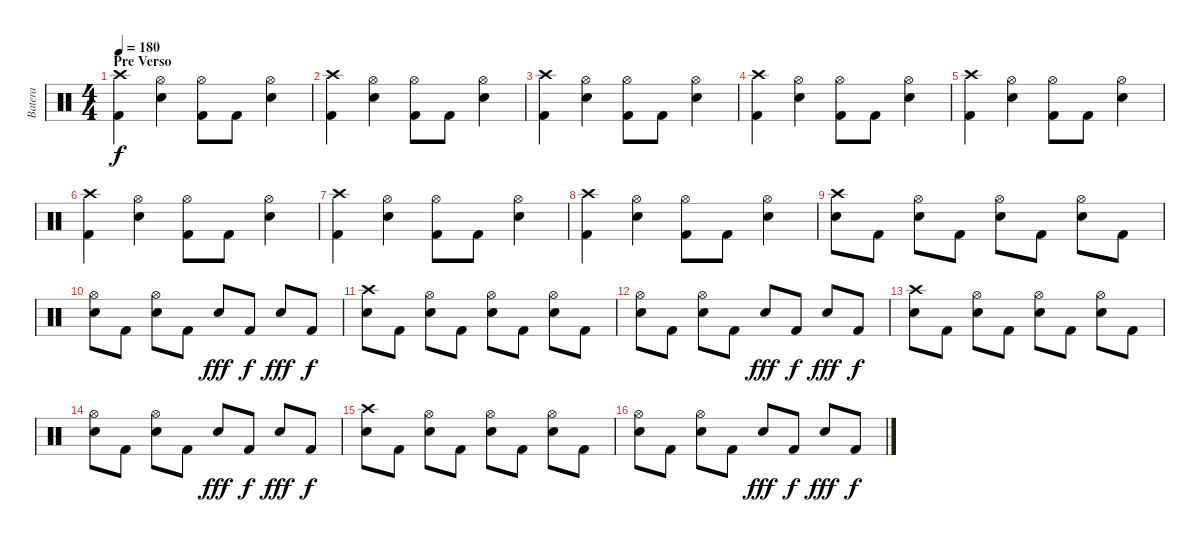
\track ("Batera" "Batera") {instrument percussion}
\staff {score}
\articulation defaults
\ts (4 4)
\section ("" "Pre Verso")
\tempo 180
\clef neutral
\ks c
("Crash high (hit)" "Kick (hit) 2").4{dy f} ("Hi-Hat (open)" "Snare (hit) 2").4 ("Hi-Hat (open)" "Kick (hit) 2").8 "Kick (hit) 2".8 ("Hi-Hat (open)" "Snare (hit) 2").4 |
("Crash high (hit)" "Kick (hit) 2").4 ("Hi-Hat (open)" "Snare (hit) 2").4 ("Hi-Hat (open)" "Kick (hit) 2").8 "Kick (hit) 2".8 ("Hi-Hat (open)" "Snare (hit) 2").4 |
("Crash high (hit)" "Kick (hit) 2").4 ("Hi-Hat (open)" "Snare (hit) 2").4 ("Hi-Hat (open)" "Kick (hit) 2").8 "Kick (hit) 2".8 ("Hi-Hat (open)" "Snare (hit) 2").4 |
("Crash high (hit)" "Kick (hit) 2").4 ("Hi-Hat (open)" "Snare (hit) 2").4 ("Hi-Hat (open)" "Kick (hit) 2").8 "Kick (hit) 2".8 ("Hi-Hat (open)" "Snare (hit) 2").4 |
("Crash high (hit)" "Kick (hit) 2").4 ("Hi-Hat (open)" "Snare (hit) 2").4 ("Hi-Hat (open)" "Kick (hit) 2").8 "Kick (hit) 2".8 ("Hi-Hat (open)" "Snare (hit) 2").4 |
("Crash high (hit)" "Kick (hit) 2").4 ("Hi-Hat (open)" "Snare (hit) 2").4 ("Hi-Hat (open)" "Kick (hit) 2").8 "Kick (hit) 2".8 ("Hi-Hat (open)" "Snare (hit) 2").4 |
("Crash high (hit)" "Kick (hit) 2").4 ("Hi-Hat (open)" "Snare (hit) 2").4 ("Hi-Hat (open)" "Kick (hit) 2").8 "Kick (hit) 2".8 ("Hi-Hat (open)" "Snare (hit) 2").4 |
("Crash high (hit)" "Kick (hit) 2").4 ("Hi-Hat (open)" "Snare (hit) 2").4 ("Hi-Hat (open)" "Kick (hit) 2").8 "Kick (hit) 2".8 ("Hi-Hat (open)" "Snare (hit) 2").4 |
("Crash high (hit)" "Snare (hit) 2").8 "Kick (hit) 2".8 ("Hi-Hat (open)" "Snare (hit) 2").8 "Kick (hit) 2".8 ("Hi-Hat (open)" "Snare (hit) 2").8 "Kick (hit) 2".8 ("Hi-Hat (open)" "Snare (hit) 2").8 "Kick (hit) 2".8 |
("Hi-Hat (open)" "Snare (hit) 2").8 "Kick (hit) 2".8 ("Hi-Hat (open)" "Snare (hit) 2").8 "Kick (hit) 2".8 "Snare (hit) 2".8{dy fff} "Kick (hit) 2".8{dy f} "Snare (hit) 2".8{dy fff} "Kick (hit) 2".8{dy f} |
("Crash high (hit)" "Snare (hit) 2").8 "Kick (hit) 2".8 ("Hi-Hat (open)" "Snare (hit) 2").8 "Kick (hit) 2".8 ("Hi-Hat (open)" "Snare (hit) 2").8 "Kick (hit) 2".8 ("Hi-Hat (open)" "Snare (hit) 2").8 "Kick (hit) 2".8 |
("Hi-Hat (open)" "Snare (hit) 2").8 "Kick (hit) 2".8 ("Hi-Hat (open)" "Snare (hit) 2").8 "Kick (hit) 2".8 "Snare (hit) 2".8{dy fff} "Kick (hit) 2".8{dy f} "Snare (hit) 2".8{dy fff} "Kick (hit) 2".8{dy f} |
("Crash high (hit)" "Snare (hit) 2").8 "Kick (hit) 2".8 ("Hi-Hat (open)" "Snare (hit) 2").8 "Kick (hit) 2".8 ("Hi-Hat (open)" "Snare (hit) 2").8 "Kick (hit) 2".8 ("Hi-Hat (open)" "Snare (hit) 2").8 "Kick (hit) 2".8 |
("Hi-Hat (open)" "Snare (hit) 2").8 "Kick (hit) 2".8 ("Hi-Hat (open)" "Snare (hit) 2").8 "Kick (hit) 2".8 "Snare (hit) 2".8{dy fff} "Kick (hit) 2".8{dy f} "Snare (hit) 2".8{dy fff} "Kick (hit) 2".8{dy f} |
("Crash high (hit)" "Snare (hit) 2").8 "Kick (hit) 2".8 ("Hi-Hat (open)" "Snare (hit) 2").8 "Kick (hit) 2".8 ("Hi-Hat (open)" "Snare (hit) 2").8 "Kick (hit) 2".8 ("Hi-Hat (open)" "Snare (hit) 2").8 "Kick (hit) 2".8 |
("Hi-Hat (open)" "Snare (hit) 2").8 "Kick (hit) 2".8 ("Hi-Hat (open)" "Snare (hit) 2").8 "Kick (hit) 2".8 "Snare (hit) 2".8{dy fff} "Kick (hit) 2".8{dy f} "Snare (hit) 2".8{dy fff} "Kick (hit) 2".8{dy f}
